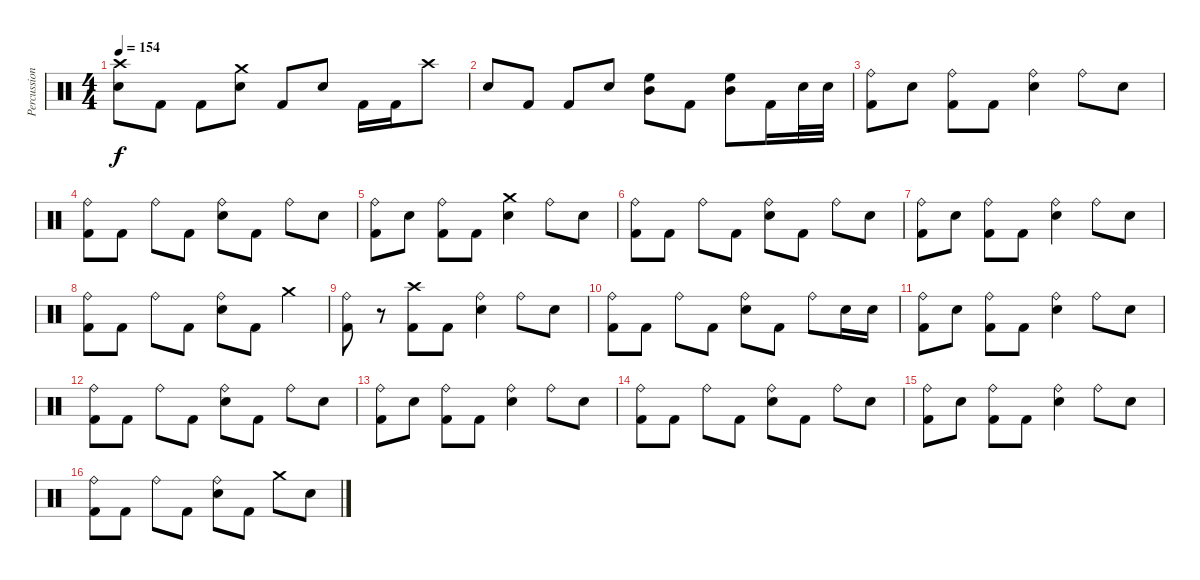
\track ("Percussion" "Percussion") {instrument percussion}
\staff {score}
\articulation defaults
\ts (4 4)
\tempo 154
\clef neutral
\ks c
("Crash high (hit)" "Snare (hit) 2").8{dy f} "Kick (hit) 2".8 "Kick (hit) 2".8 ("Crash medium (hit)" "Snare (hit) 2").8 "Kick (hit) 2".8 "Snare (hit) 2".8 "Kick (hit) 2".16 "Kick (hit) 2".16 "Crash high (hit)".8 |
"Snare (hit) 2".8 "Kick (hit) 2".8 "Kick (hit) 2".8 "Snare (hit) 2".8 ("Mid Tom (hit)" "High Floor Tom (hit)").8 "Kick (hit) 2".8 ("Mid Tom (hit)" "High Floor Tom (hit)").8 "Kick (hit) 2".16 "Snare (hit) 2".32 "Snare (hit) 2".32 |
("Ride (bell)" "Kick (hit) 2").8 "Snare (hit) 2".8 ("Ride (bell)" "Kick (hit) 2").8 "Kick (hit) 2".8 ("Ride (bell)" "Snare (hit) 2").4 "Ride (bell)".8 "Snare (hit) 2".8 |
("Ride (bell)" "Kick (hit) 2").8 "Kick (hit) 2".8 "Ride (bell)".8 "Kick (hit) 2".8 ("Ride (bell)" "Snare (hit) 2").8 "Kick (hit) 2".8 "Ride (bell)".8 "Snare (hit) 2".8 |
("Ride (bell)" "Kick (hit) 2").8 "Snare (hit) 2".8 ("Ride (bell)" "Kick (hit) 2").8 "Kick (hit) 2".8 ("Crash medium (hit)" "Snare (hit) 2").4 "Ride (bell)".8 "Snare (hit) 2".8 |
("Ride (bell)" "Kick (hit) 2").8 "Kick (hit) 2".8 "Ride (bell)".8 "Kick (hit) 2".8 ("Ride (bell)" "Snare (hit) 2").8 "Kick (hit) 2".8 "Ride (bell)".8 "Snare (hit) 2".8 |
("Ride (bell)" "Kick (hit) 2").8 "Snare (hit) 2".8 ("Ride (bell)" "Kick (hit) 2").8 "Kick (hit) 2".8 ("Ride (bell)" "Snare (hit) 2").4 "Ride (bell)".8 "Snare (hit) 2".8 |
("Ride (bell)" "Kick (hit) 2").8 "Kick (hit) 2".8 "Ride (bell)".8 "Kick (hit) 2".8 ("Ride (bell)" "Snare (hit) 2").8 "Kick (hit) 2".8 "Crash medium (hit)".4 |
("Ride (bell)" "Kick (hit) 2").8 r.8 ("Crash high (hit)" "Kick (hit) 2").8 "Kick (hit) 2".8 ("Ride (bell)" "Snare (hit) 2").4 "Ride (bell)".8 "Snare (hit) 2".8 |
("Ride (bell)" "Kick (hit) 2").8 "Kick (hit) 2".8 "Ride (bell)".8 "Kick (hit) 2".8 ("Ride (bell)" "Snare (hit) 2").8 "Kick (hit) 2".8 "Ride (bell)".8 "Snare (hit) 2".16 "Snare (hit) 2".16 |
("Ride (bell)" "Kick (hit) 2").8 "Snare (hit) 2".8 ("Ride (bell)" "Kick (hit) 2").8 "Kick (hit) 2".8 ("Ride (bell)" "Snare (hit) 2").4 "Ride (bell)".8 "Snare (hit) 2".8 |
("Ride (bell)" "Kick (hit) 2").8 "Kick (hit) 2".8 "Ride (bell)".8 "Kick (hit) 2".8 ("Ride (bell)" "Snare (hit) 2").8 "Kick (hit) 2".8 "Ride (bell)".8 "Snare (hit) 2".8 |
("Ride (bell)" "Kick (hit) 2").8 "Snare (hit) 2".8 ("Ride (bell)" "Kick (hit) 2").8 "Kick (hit) 2".8 ("Ride (bell)" "Snare (hit) 2").4 "Ride (bell)".8 "Snare (hit) 2".8 |
("Ride (bell)" "Kick (hit) 2").8 "Kick (hit) 2".8 "Ride (bell)".8 "Kick (hit) 2".8 ("Ride (bell)" "Snare (hit) 2").8 "Kick (hit) 2".8 "Ride (bell)".8 "Snare (hit) 2".8 |
("Ride (bell)" "Kick (hit) 2").8 "Snare (hit) 2".8 ("Ride (bell)" "Kick (hit) 2").8 "Kick (hit) 2".8 ("Ride (bell)" "Snare (hit) 2").4 "Ride (bell)".8 "Snare (hit) 2".8 |
("Ride (bell)" "Kick (hit) 2").8 "Kick (hit) 2".8 "Ride (bell)".8 "Kick (hit) 2".8 ("Ride (bell)" "Snare (hit) 2").8 "Kick (hit) 2".8 "Crash medium (hit)".8 "Snare (hit) 2".8
